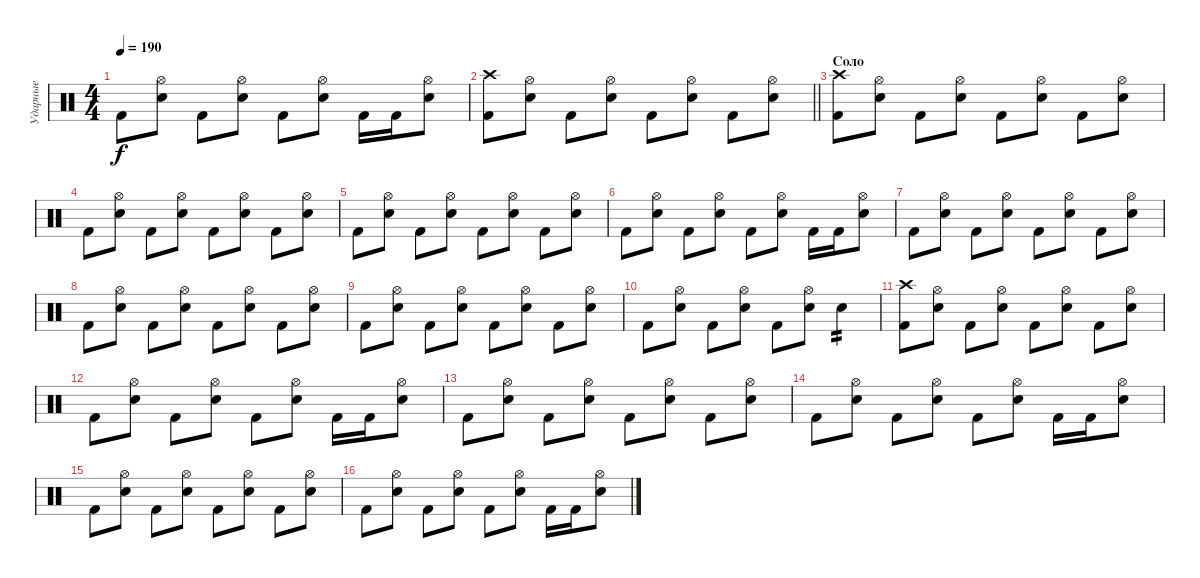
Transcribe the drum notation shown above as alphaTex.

\track ("Ударные" "Ударные") {instrument percussion}
\staff {score}
\articulation defaults
\ts (4 4)
\tempo 190
\clef neutral
\ks c "Kick (hit) 2".8{dy f}
("Hi-Hat (open)" "Electric Snare (hit)").8 "Kick (hit) 2".8 ("Hi-Hat (open)" "Electric Snare (hit)").8 "Kick (hit) 2".8 ("Hi-Hat (open)" "Electric Snare (hit)").8 "Kick (hit) 2".16 "Kick (hit) 2".16 ("Hi-Hat (open)" "Electric Snare (hit)").8 |
\barLineRight lightlight
("Crash high (hit)" "Kick (hit) 2").8 ("Hi-Hat (open)" "Electric Snare (hit)").8 "Kick (hit) 2".8 ("Hi-Hat (open)" "Electric Snare (hit)").8 "Kick (hit) 2".8 ("Hi-Hat (open)" "Electric Snare (hit)").8 "Kick (hit) 2".8 ("Hi-Hat (open)" "Electric Snare (hit)").8 |
\section ("" "Соло")
("Crash high (hit)" "Kick (hit) 2").8 ("Hi-Hat (open)" "Electric Snare (hit)").8 "Kick (hit) 2".8 ("Hi-Hat (open)" "Electric Snare (hit)").8 "Kick (hit) 2".8 ("Hi-Hat (open)" "Electric Snare (hit)").8 "Kick (hit) 2".8 ("Hi-Hat (open)" "Electric Snare (hit)").8 |
"Kick (hit) 2".8 ("Hi-Hat (open)" "Electric Snare (hit)").8 "Kick (hit) 2".8 ("Hi-Hat (open)" "Electric Snare (hit)").8 "Kick (hit) 2".8 ("Hi-Hat (open)" "Electric Snare (hit)").8 "Kick (hit) 2".8 ("Hi-Hat (open)" "Electric Snare (hit)").8 |
"Kick (hit) 2".8 ("Hi-Hat (open)" "Electric Snare (hit)").8 "Kick (hit) 2".8 ("Hi-Hat (open)" "Electric Snare (hit)").8 "Kick (hit) 2".8 ("Hi-Hat (open)" "Electric Snare (hit)").8 "Kick (hit) 2".8 ("Hi-Hat (open)" "Electric Snare (hit)").8 |
"Kick (hit) 2".8 ("Hi-Hat (open)" "Electric Snare (hit)").8 "Kick (hit) 2".8 ("Hi-Hat (open)" "Electric Snare (hit)").8 "Kick (hit) 2".8 ("Hi-Hat (open)" "Electric Snare (hit)").8 "Kick (hit) 2".16 "Kick (hit) 2".16 ("Hi-Hat (open)" "Electric Snare (hit)").8 |
"Kick (hit) 2".8 ("Hi-Hat (open)" "Electric Snare (hit)").8 "Kick (hit) 2".8 ("Hi-Hat (open)" "Electric Snare (hit)").8 "Kick (hit) 2".8 ("Hi-Hat (open)" "Electric Snare (hit)").8 "Kick (hit) 2".8 ("Hi-Hat (open)" "Electric Snare (hit)").8 |
"Kick (hit) 2".8 ("Hi-Hat (open)" "Electric Snare (hit)").8 "Kick (hit) 2".8 ("Hi-Hat (open)" "Electric Snare (hit)").8 "Kick (hit) 2".8 ("Hi-Hat (open)" "Electric Snare (hit)").8 "Kick (hit) 2".8 ("Hi-Hat (open)" "Electric Snare (hit)").8 |
"Kick (hit) 2".8 ("Hi-Hat (open)" "Electric Snare (hit)").8 "Kick (hit) 2".8 ("Hi-Hat (open)" "Electric Snare (hit)").8 "Kick (hit) 2".8 ("Hi-Hat (open)" "Electric Snare (hit)").8 "Kick (hit) 2".8 ("Hi-Hat (open)" "Electric Snare (hit)").8 |
"Kick (hit) 2".8 ("Hi-Hat (open)" "Electric Snare (hit)").8 "Kick (hit) 2".8 ("Hi-Hat (open)" "Electric Snare (hit)").8 "Kick (hit) 2".8 ("Hi-Hat (open)" "Electric Snare (hit)").8 "Electric Snare (hit)".4{tp 2} |
("Crash high (hit)" "Kick (hit) 2").8 ("Hi-Hat (open)" "Electric Snare (hit)").8 "Kick (hit) 2".8 ("Hi-Hat (open)" "Electric Snare (hit)").8 "Kick (hit) 2".8 ("Hi-Hat (open)" "Electric Snare (hit)").8 "Kick (hit) 2".8 ("Hi-Hat (open)" "Electric Snare (hit)").8 |
"Kick (hit) 2".8 ("Hi-Hat (open)" "Electric Snare (hit)").8 "Kick (hit) 2".8 ("Hi-Hat (open)" "Electric Snare (hit)").8 "Kick (hit) 2".8 ("Hi-Hat (open)" "Electric Snare (hit)").8 "Kick (hit) 2".16 "Kick (hit) 2".16 ("Hi-Hat (open)" "Electric Snare (hit)").8 |
"Kick (hit) 2".8 ("Hi-Hat (open)" "Electric Snare (hit)").8 "Kick (hit) 2".8 ("Hi-Hat (open)" "Electric Snare (hit)").8 "Kick (hit) 2".8 ("Hi-Hat (open)" "Electric Snare (hit)").8 "Kick (hit) 2".8 ("Hi-Hat (open)" "Electric Snare (hit)").8 |
"Kick (hit) 2".8 ("Hi-Hat (open)" "Electric Snare (hit)").8 "Kick (hit) 2".8 ("Hi-Hat (open)" "Electric Snare (hit)").8 "Kick (hit) 2".8 ("Hi-Hat (open)" "Electric Snare (hit)").8 "Kick (hit) 2".16 "Kick (hit) 2".16 ("Hi-Hat (open)" "Electric Snare (hit)").8 |
"Kick (hit) 2".8 ("Hi-Hat (open)" "Electric Snare (hit)").8 "Kick (hit) 2".8 ("Hi-Hat (open)" "Electric Snare (hit)").8 "Kick (hit) 2".8 ("Hi-Hat (open)" "Electric Snare (hit)").8 "Kick (hit) 2".8 ("Hi-Hat (open)" "Electric Snare (hit)").8 |
"Kick (hit) 2".8 ("Hi-Hat (open)" "Electric Snare (hit)").8 "Kick (hit) 2".8 ("Hi-Hat (open)" "Electric Snare (hit)").8 "Kick (hit) 2".8 ("Hi-Hat (open)" "Electric Snare (hit)").8 "Kick (hit) 2".16 "Kick (hit) 2".16 ("Hi-Hat (open)" "Electric Snare (hit)").8
